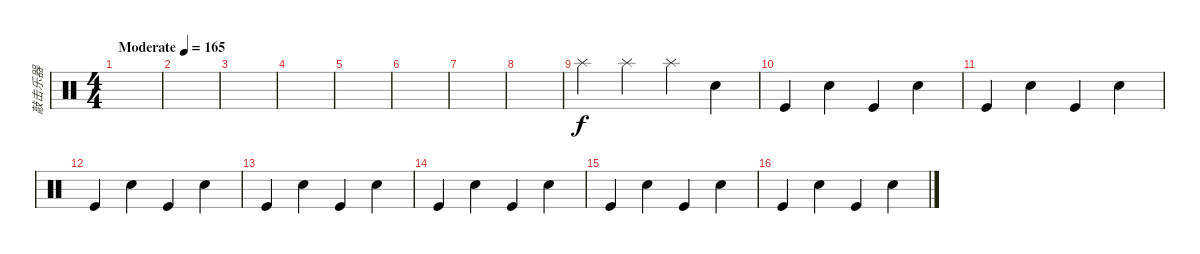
\track ("敲击乐器" "敲击乐器") {instrument percussion}
\staff {score}
\articulation defaults
\ts (4 4)
\tempo (165 "Moderate")
\clef neutral
\ks c
|
|
|
|
|
|
|
|
"Splash (hit)".4 "Splash (hit)".4 "Splash (hit)".4 "Snare (hit) 2".4 |
"Kick (hit)".4 "Snare (hit) 2".4 "Kick (hit)".4 "Snare (hit) 2".4 |
"Kick (hit)".4 "Snare (hit) 2".4 "Kick (hit)".4 "Snare (hit) 2".4 |
"Kick (hit)".4 "Snare (hit) 2".4 "Kick (hit)".4 "Snare (hit) 2".4 |
"Kick (hit)".4 "Snare (hit) 2".4 "Kick (hit)".4 "Snare (hit) 2".4 |
"Kick (hit)".4 "Snare (hit) 2".4 "Kick (hit)".4 "Snare (hit) 2".4 |
"Kick (hit)".4 "Snare (hit) 2".4 "Kick (hit)".4 "Snare (hit) 2".4 |
"Kick (hit)".4 "Snare (hit) 2".4 "Kick (hit)".4 "Snare (hit) 2".4
